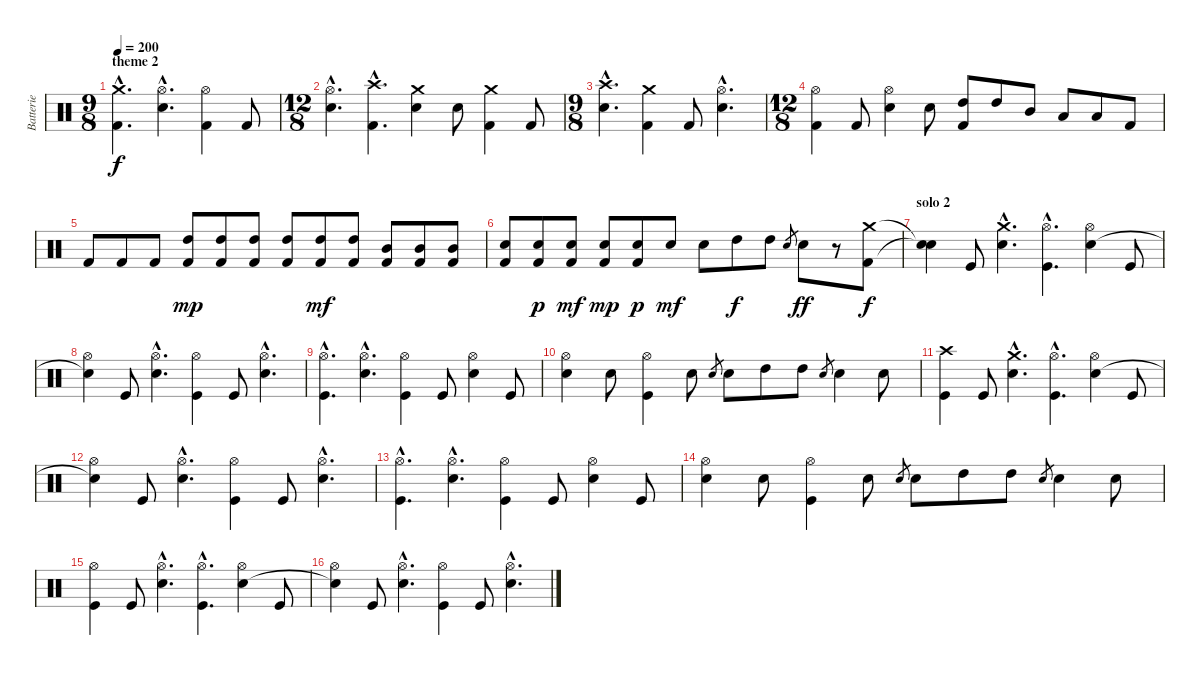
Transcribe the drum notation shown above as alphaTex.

\track ("Batterie" "Batterie") {instrument percussion}
\staff {score}
\articulation defaults
\ts (9 8)
\section ("" "theme 2")
\tempo 200
\clef neutral
\ks c
("Crash medium (hit)"{hac} "Kick (hit) 2"{hac}).4{d dy f} ("Hi-Hat (open)"{hac} "Electric Snare (hit)"{hac}).4{d} ("Hi-Hat (open)" "Kick (hit) 2").4 "Kick (hit) 2".8 |
\ts (12 8)
("Hi-Hat (open)"{hac} "Electric Snare (hit)"{hac}).4{d} ("Crash high (hit)"{hac} "Kick (hit) 2"{hac}).4{d} ("Crash medium (hit)" "Electric Snare (hit)").4 "Electric Snare (hit)".8 ("Crash medium (hit)" "Kick (hit) 2").4 "Kick (hit) 2".8 |
\ts (9 8)
("Crash high (hit)"{hac} "Electric Snare (hit)"{hac}).4{d} ("Crash medium (hit)" "Kick (hit) 2").4 "Kick (hit) 2".8 ("Hi-Hat (open)"{hac} "Electric Snare (hit)"{hac}).4{d} |
\ts (12 8)
("Hi-Hat (open)" "Kick (hit) 2").4 "Kick (hit) 2".8 ("Hi-Hat (open)" "Electric Snare (hit)").4 "Electric Snare (hit)".8 ("High Tom (hit)" "Kick (hit) 2").8 "High Tom (hit)".8 "Mid Tom (hit)".8 "Low Tom (hit)".8 "Low Tom (hit)".8 "Kick (hit) 2".8 |
"Kick (hit) 2".8 "Kick (hit) 2".8 "Kick (hit) 2".8 ("High Tom (hit)" "Kick (hit) 2").8{dy mp} ("High Tom (hit)" "Kick (hit) 2").8 ("High Tom (hit)" "Kick (hit) 2").8 ("High Tom (hit)" "Kick (hit) 2").8 ("High Tom (hit)" "Kick (hit) 2").8{dy mf} ("High Tom (hit)" "Kick (hit) 2").8 ("Mid Tom (hit)" "Kick (hit) 2").8 ("Mid Tom (hit)" "Kick (hit) 2").8 ("Mid Tom (hit)" "Kick (hit) 2").8 |
("Electric Snare (hit)" "Kick (hit) 2").8 ("Electric Snare (hit)" "Kick (hit) 2").8{dy p} ("Electric Snare (hit)" "Kick (hit) 2").8{dy mf} ("Electric Snare (hit)" "Kick (hit) 2").8{dy mp} ("Electric Snare (hit)" "Kick (hit) 2").8{dy p} "Electric Snare (hit)".8{dy mf} "Electric Snare (hit)".8 "High Tom (hit)".8{dy f} "High Tom (hit)".8 "Electric Snare (hit)".8{gr} "Electric Snare (hit)".8{dy ff} r.8 ("Crash medium (hit)" "Kick (hit) 2").8{dy f} |
\section ("" "solo 2")
("Snare (hit)"{t} "Snare (hit)"{t}).4 "Kick (hit)".8 ("Crash medium (hit)"{hac} "Electric Snare (hit)"{hac}).4{d} ("Hi-Hat (open)"{hac} "Kick (hit)"{hac}).4{d} ("Hi-Hat (open)" "Electric Snare (hit)").4 "Kick (hit)".8 |
("Hi-Hat (open)" "Snare (hit)"{t}).4 "Kick (hit)".8 ("Hi-Hat (open)"{hac} "Electric Snare (hit)"{hac}).4{d} ("Hi-Hat (open)" "Kick (hit)").4 "Kick (hit)".8 ("Hi-Hat (open)"{hac} "Electric Snare (hit)"{hac}).4{d} |
("Hi-Hat (open)"{hac} "Kick (hit)"{hac}).4{d} ("Hi-Hat (open)"{hac} "Electric Snare (hit)"{hac}).4{d} ("Hi-Hat (open)" "Kick (hit)").4 "Kick (hit)".8 ("Hi-Hat (open)" "Electric Snare (hit)").4 "Kick (hit)".8 |
("Hi-Hat (open)" "Electric Snare (hit)").4 "Electric Snare (hit)".8 ("Hi-Hat (open)" "Kick (hit)").4 "Electric Snare (hit)".8 "Electric Snare (hit)".8{gr} "Electric Snare (hit)".8 "High Tom (hit)".8 "High Tom (hit)".8 "Electric Snare (hit)".8{gr} "Electric Snare (hit)".4 "Electric Snare (hit)".8 |
("Crash high (hit)" "Kick (hit)").4 "Kick (hit)".8 ("Crash medium (hit)"{hac} "Electric Snare (hit)"{hac}).4{d} ("Hi-Hat (open)"{hac} "Kick (hit)"{hac}).4{d} ("Hi-Hat (open)" "Electric Snare (hit)").4 "Kick (hit)".8 |
("Hi-Hat (open)" "Snare (hit)"{t}).4 "Kick (hit)".8 ("Hi-Hat (open)"{hac} "Electric Snare (hit)"{hac}).4{d} ("Hi-Hat (open)" "Kick (hit)").4 "Kick (hit)".8 ("Hi-Hat (open)"{hac} "Electric Snare (hit)"{hac}).4{d} |
("Hi-Hat (open)"{hac} "Kick (hit)"{hac}).4{d} ("Hi-Hat (open)"{hac} "Electric Snare (hit)"{hac}).4{d} ("Hi-Hat (open)" "Kick (hit)").4 "Kick (hit)".8 ("Hi-Hat (open)" "Electric Snare (hit)").4 "Kick (hit)".8 |
("Hi-Hat (open)" "Electric Snare (hit)").4 "Electric Snare (hit)".8 ("Hi-Hat (open)" "Kick (hit)").4 "Electric Snare (hit)".8 "Electric Snare (hit)".8{gr} "Electric Snare (hit)".8 "High Tom (hit)".8 "High Tom (hit)".8 "Electric Snare (hit)".8{gr} "Electric Snare (hit)".4 "Electric Snare (hit)".8 |
("Hi-Hat (open)" "Kick (hit)").4 "Kick (hit)".8 ("Hi-Hat (open)"{hac} "Electric Snare (hit)"{hac}).4{d} ("Hi-Hat (open)"{hac} "Kick (hit)"{hac}).4{d} ("Hi-Hat (open)" "Electric Snare (hit)").4 "Kick (hit)".8 |
("Hi-Hat (open)" "Snare (hit)"{t}).4 "Kick (hit)".8 ("Hi-Hat (open)"{hac} "Electric Snare (hit)"{hac}).4{d} ("Hi-Hat (open)" "Kick (hit)").4 "Kick (hit)".8 ("Hi-Hat (open)"{hac} "Electric Snare (hit)"{hac}).4{d}
